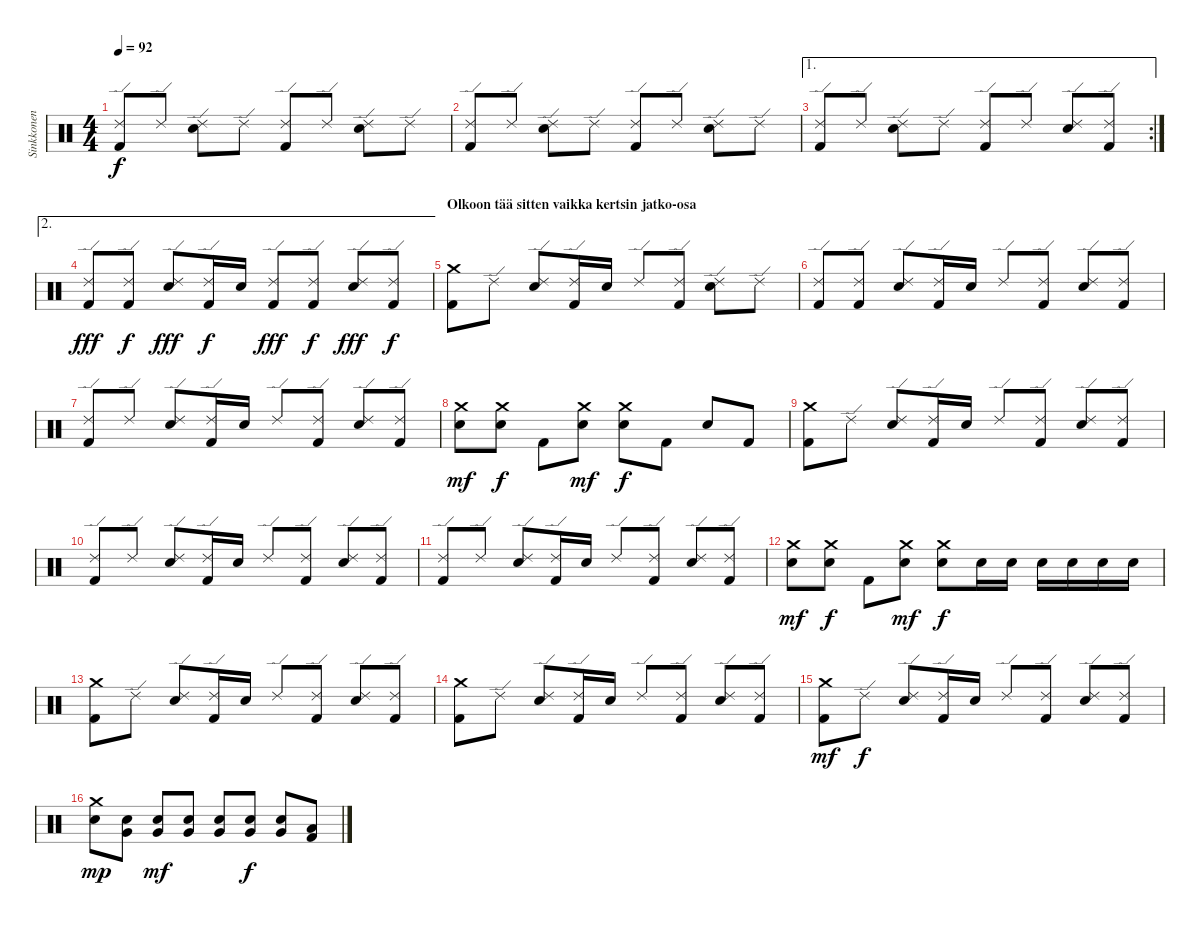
\track ("Sinkkonen" "Sinkkonen") {instrument percussion}
\staff {score}
\articulation defaults
\ts (4 4)
\tempo 92
\clef neutral
\ks c
("Kick (hit) 2" "Ride (edge) 2").8{dy f} "Ride (edge) 2".8 ("Ride (edge) 2" "Snare (hit) 2").8 "Ride (edge) 2".8 ("Kick (hit) 2" "Ride (edge) 2").8 "Ride (edge) 2".8 ("Ride (edge) 2" "Snare (hit) 2").8 "Ride (edge) 2".8 |
("Kick (hit) 2" "Ride (edge) 2").8 "Ride (edge) 2".8 ("Ride (edge) 2" "Snare (hit) 2").8 "Ride (edge) 2".8 ("Kick (hit) 2" "Ride (edge) 2").8 "Ride (edge) 2".8 ("Ride (edge) 2" "Snare (hit) 2").8 "Ride (edge) 2".8 |
\ae 1
\rc 2
("Kick (hit) 2" "Ride (edge) 2").8 "Ride (edge) 2".8 ("Ride (edge) 2" "Snare (hit) 2").8 "Ride (edge) 2".8 ("Kick (hit) 2" "Ride (edge) 2").8 "Ride (edge) 2".8 ("Ride (edge) 2" "Snare (hit) 2").8 ("Kick (hit) 2" "Ride (edge) 2").8 |
\ae 2
("Kick (hit) 2" "Ride (edge) 2").8{dy fff} ("Kick (hit) 2" "Ride (edge) 2").8{dy f} ("Ride (edge) 2" "Snare (hit) 2").8{dy fff} ("Kick (hit) 2" "Ride (edge) 2").16{dy f} "Snare (hit) 2".16 ("Kick (hit) 2" "Ride (edge) 2").8{dy fff} ("Kick (hit) 2" "Ride (edge) 2").8{dy f} ("Ride (edge) 2" "Snare (hit) 2").8{dy fff} ("Kick (hit) 2" "Ride (edge) 2").8{dy f} |
\section ("" "Olkoon tää sitten vaikka kertsin jatko-osa")
("Kick (hit) 2" "Crash medium (hit)").8 "Ride (edge) 2".8 ("Ride (edge) 2" "Snare (hit) 2").8 ("Kick (hit) 2" "Ride (edge) 2").16 "Snare (hit) 2".16 "Ride (edge) 2".8 ("Kick (hit) 2" "Ride (edge) 2").8 ("Ride (edge) 2" "Snare (hit) 2").8 "Ride (edge) 2".8 |
("Kick (hit) 2" "Ride (edge) 2").8 ("Kick (hit) 2" "Ride (edge) 2").8 ("Ride (edge) 2" "Snare (hit) 2").8 ("Kick (hit) 2" "Ride (edge) 2").16 "Snare (hit) 2".16 "Ride (edge) 2".8 ("Kick (hit) 2" "Ride (edge) 2").8 ("Ride (edge) 2" "Snare (hit) 2").8 ("Kick (hit) 2" "Ride (edge) 2").8 |
("Kick (hit) 2" "Ride (edge) 2").8 "Ride (edge) 2".8 ("Ride (edge) 2" "Snare (hit) 2").8 ("Kick (hit) 2" "Ride (edge) 2").16 "Snare (hit) 2".16 "Ride (edge) 2".8 ("Kick (hit) 2" "Ride (edge) 2").8 ("Ride (edge) 2" "Snare (hit) 2").8 ("Kick (hit) 2" "Ride (edge) 2").8 |
("Crash medium (hit)" "Snare (hit) 2").8{dy mf} ("Crash medium (hit)" "Snare (hit) 2").8{dy f} "Kick (hit) 2".8 ("Crash medium (hit)" "Snare (hit) 2").8{dy mf} ("Crash medium (hit)" "Snare (hit) 2").8{dy f} "Kick (hit) 2".8 "Snare (hit) 2".8 "Kick (hit) 2".8 |
("Kick (hit) 2" "Crash medium (hit)").8 "Ride (edge) 2".8 ("Ride (edge) 2" "Snare (hit) 2").8 ("Kick (hit) 2" "Ride (edge) 2").16 "Snare (hit) 2".16 "Ride (edge) 2".8 ("Kick (hit) 2" "Ride (edge) 2").8 ("Ride (edge) 2" "Snare (hit) 2").8 ("Kick (hit) 2" "Ride (edge) 2").8 |
("Kick (hit) 2" "Ride (edge) 2").8 "Ride (edge) 2".8 ("Ride (edge) 2" "Snare (hit) 2").8 ("Kick (hit) 2" "Ride (edge) 2").16 "Snare (hit) 2".16 "Ride (edge) 2".8 ("Kick (hit) 2" "Ride (edge) 2").8 ("Ride (edge) 2" "Snare (hit) 2").8 ("Kick (hit) 2" "Ride (edge) 2").8 |
("Kick (hit) 2" "Ride (edge) 2").8 "Ride (edge) 2".8 ("Ride (edge) 2" "Snare (hit) 2").8 ("Kick (hit) 2" "Ride (edge) 2").16 "Snare (hit) 2".16 "Ride (edge) 2".8 ("Kick (hit) 2" "Ride (edge) 2").8 ("Ride (edge) 2" "Snare (hit) 2").8 ("Kick (hit) 2" "Ride (edge) 2").8 |
("Crash medium (hit)" "Snare (hit) 2").8{dy mf} ("Crash medium (hit)" "Snare (hit) 2").8{dy f} "Kick (hit) 2".8 ("Crash medium (hit)" "Snare (hit) 2").8{dy mf} ("Crash medium (hit)" "Snare (hit) 2").8{dy f} "Snare (hit) 2".16 "Snare (hit) 2".16 "Snare (hit) 2".16 "Snare (hit) 2".16 "Snare (hit) 2".16 "Snare (hit) 2".16 |
("Kick (hit) 2" "Crash medium (hit)").8 "Ride (edge) 2".8 ("Ride (edge) 2" "Snare (hit) 2").8 ("Kick (hit) 2" "Ride (edge) 2").16 "Snare (hit) 2".16 "Ride (edge) 2".8 ("Kick (hit) 2" "Ride (edge) 2").8 ("Ride (edge) 2" "Snare (hit) 2").8 ("Kick (hit) 2" "Ride (edge) 2").8 |
("Kick (hit) 2" "Crash medium (hit)").8 "Ride (edge) 2".8 ("Ride (edge) 2" "Snare (hit) 2").8 ("Kick (hit) 2" "Ride (edge) 2").16 "Snare (hit) 2".16 "Ride (edge) 2".8 ("Kick (hit) 2" "Ride (edge) 2").8 ("Ride (edge) 2" "Snare (hit) 2").8 ("Kick (hit) 2" "Ride (edge) 2").8 |
("Kick (hit) 2" "Crash medium (hit)").8{dy mf} "Ride (edge) 2".8{dy f} ("Ride (edge) 2" "Snare (hit) 2").8 ("Kick (hit) 2" "Ride (edge) 2").16 "Snare (hit) 2".16 "Ride (edge) 2".8 ("Kick (hit) 2" "Ride (edge) 2").8 ("Ride (edge) 2" "Snare (hit) 2").8 ("Kick (hit) 2" "Ride (edge) 2").8 |
("Crash medium (hit)" "Snare (hit) 2").8{dy mp} ("Very Low Tom (hit)" "Snare (hit) 2").8 ("Very Low Tom (hit)" "Snare (hit) 2").8{dy mf} ("Very Low Tom (hit)" "Snare (hit) 2").8 ("Very Low Tom (hit)" "Snare (hit) 2").8 ("Very Low Tom (hit)" "Snare (hit) 2").8{dy f} ("Very Low Tom (hit)" "Snare (hit) 2").8 ("Kick (hit) 2" "Low Floor Tom (hit)").8
